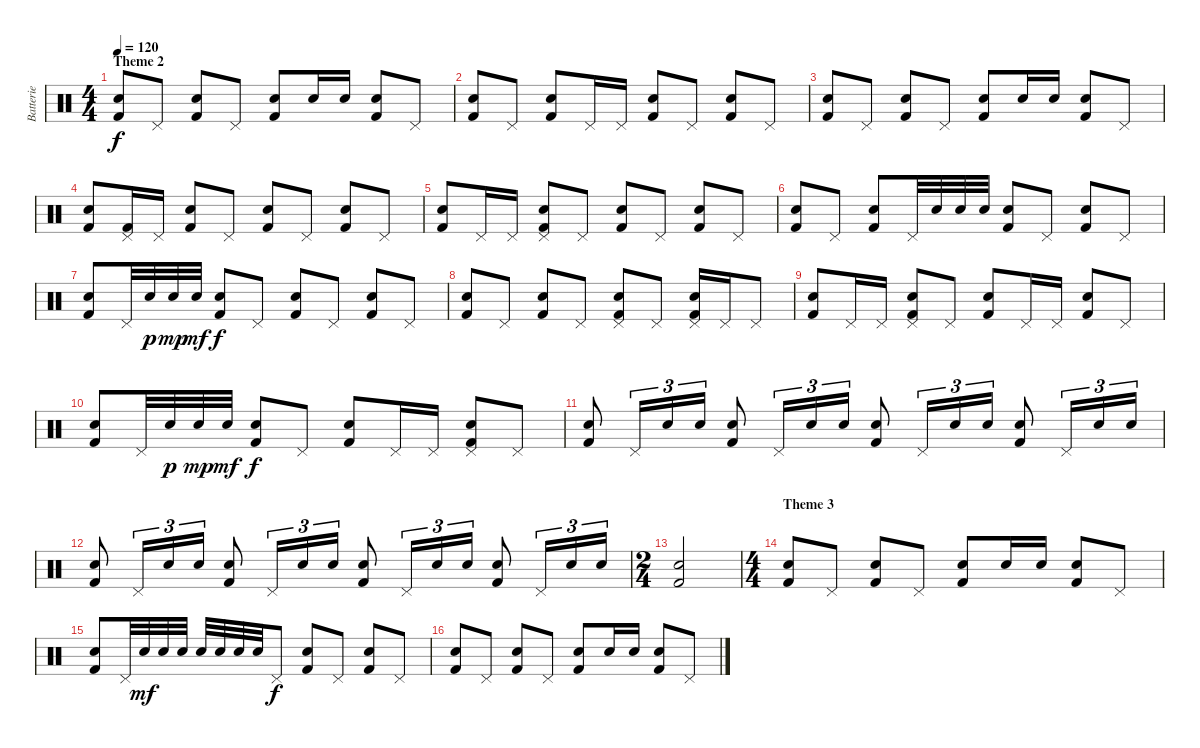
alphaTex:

\track ("Batterie" "Batterie") {instrument percussion}
\staff {score}
\articulation defaults
\ts (4 4)
\section ("" "Theme 2")
\tempo 120
\clef neutral
\ks c
("Electric Snare (hit)" "Kick (hit) 2").8{dy f} "Pedal Hi-Hat (hit)".8 ("Electric Snare (hit)" "Kick (hit) 2").8 "Pedal Hi-Hat (hit)".8 ("Electric Snare (hit)" "Kick (hit) 2").8 "Electric Snare (hit)".16 "Electric Snare (hit)".16 ("Electric Snare (hit)" "Kick (hit) 2").8 "Pedal Hi-Hat (hit)".8 |
("Electric Snare (hit)" "Kick (hit) 2").8 "Pedal Hi-Hat (hit)".8 ("Electric Snare (hit)" "Kick (hit) 2").8 "Pedal Hi-Hat (hit)".16 "Pedal Hi-Hat (hit)".16 ("Electric Snare (hit)" "Kick (hit) 2").8 "Pedal Hi-Hat (hit)".8 ("Electric Snare (hit)" "Kick (hit) 2").8 "Pedal Hi-Hat (hit)".8 |
("Electric Snare (hit)" "Kick (hit) 2").8 "Pedal Hi-Hat (hit)".8 ("Electric Snare (hit)" "Kick (hit) 2").8 "Pedal Hi-Hat (hit)".8 ("Electric Snare (hit)" "Kick (hit) 2").8 "Electric Snare (hit)".16 "Electric Snare (hit)".16 ("Electric Snare (hit)" "Kick (hit) 2").8 "Pedal Hi-Hat (hit)".8 |
("Electric Snare (hit)" "Kick (hit) 2").8 ("Pedal Hi-Hat (hit)" "Kick (hit) 2").16 "Pedal Hi-Hat (hit)".16 ("Electric Snare (hit)" "Kick (hit) 2").8 "Pedal Hi-Hat (hit)".8 ("Electric Snare (hit)" "Kick (hit) 2").8 "Pedal Hi-Hat (hit)".8 ("Electric Snare (hit)" "Kick (hit) 2").8 "Pedal Hi-Hat (hit)".8 |
("Electric Snare (hit)" "Kick (hit) 2").8 "Pedal Hi-Hat (hit)".16 "Pedal Hi-Hat (hit)".16 ("Pedal Hi-Hat (hit)" "Electric Snare (hit)" "Kick (hit) 2").8 "Pedal Hi-Hat (hit)".8 ("Electric Snare (hit)" "Kick (hit) 2").8 "Pedal Hi-Hat (hit)".8 ("Electric Snare (hit)" "Kick (hit) 2").8 "Pedal Hi-Hat (hit)".8 |
("Electric Snare (hit)" "Kick (hit) 2").8 "Pedal Hi-Hat (hit)".8 ("Electric Snare (hit)" "Kick (hit) 2").8 "Pedal Hi-Hat (hit)".32 "Electric Snare (hit)".32 "Electric Snare (hit)".32 "Electric Snare (hit)".32 ("Electric Snare (hit)" "Kick (hit) 2").8 "Pedal Hi-Hat (hit)".8 ("Electric Snare (hit)" "Kick (hit) 2").8 "Pedal Hi-Hat (hit)".8 |
("Electric Snare (hit)" "Kick (hit) 2").8 "Pedal Hi-Hat (hit)".32 "Electric Snare (hit)".32{dy p} "Electric Snare (hit)".32{dy mp} "Electric Snare (hit)".32{dy mf} ("Electric Snare (hit)" "Kick (hit) 2").8{dy f} "Pedal Hi-Hat (hit)".8 ("Electric Snare (hit)" "Kick (hit) 2").8 "Pedal Hi-Hat (hit)".8 ("Electric Snare (hit)" "Kick (hit) 2").8 "Pedal Hi-Hat (hit)".8 |
("Electric Snare (hit)" "Kick (hit) 2").8 "Pedal Hi-Hat (hit)".8 ("Electric Snare (hit)" "Kick (hit) 2").8 "Pedal Hi-Hat (hit)".8 ("Pedal Hi-Hat (hit)" "Electric Snare (hit)" "Kick (hit) 2").8 "Pedal Hi-Hat (hit)".8 ("Pedal Hi-Hat (hit)" "Electric Snare (hit)" "Kick (hit) 2").16 "Pedal Hi-Hat (hit)".16 "Pedal Hi-Hat (hit)".8 |
("Electric Snare (hit)" "Kick (hit) 2").8 "Pedal Hi-Hat (hit)".16 "Pedal Hi-Hat (hit)".16 ("Pedal Hi-Hat (hit)" "Electric Snare (hit)" "Kick (hit) 2").8 "Pedal Hi-Hat (hit)".8 ("Electric Snare (hit)" "Kick (hit) 2").8 "Pedal Hi-Hat (hit)".16 "Pedal Hi-Hat (hit)".16 ("Electric Snare (hit)" "Kick (hit) 2").8 "Pedal Hi-Hat (hit)".8 |
("Electric Snare (hit)" "Kick (hit) 2").8 "Pedal Hi-Hat (hit)".32 "Electric Snare (hit)".32{dy p} "Electric Snare (hit)".32{dy mp} "Electric Snare (hit)".32{dy mf} ("Electric Snare (hit)" "Kick (hit) 2").8{dy f} "Pedal Hi-Hat (hit)".8 ("Electric Snare (hit)" "Kick (hit) 2").8 "Pedal Hi-Hat (hit)".16 "Pedal Hi-Hat (hit)".16 ("Pedal Hi-Hat (hit)" "Electric Snare (hit)" "Kick (hit) 2").8 "Pedal Hi-Hat (hit)".8 |
("Electric Snare (hit)" "Kick (hit) 2").8 "Pedal Hi-Hat (hit)".16{tu (3 2)} "Electric Snare (hit)".16{tu (3 2)} "Electric Snare (hit)".16{tu (3 2)} ("Electric Snare (hit)" "Kick (hit) 2").8 "Pedal Hi-Hat (hit)".16{tu (3 2)} "Electric Snare (hit)".16{tu (3 2)} "Electric Snare (hit)".16{tu (3 2)} ("Electric Snare (hit)" "Kick (hit) 2").8 "Pedal Hi-Hat (hit)".16{tu (3 2)} "Electric Snare (hit)".16{tu (3 2)} "Electric Snare (hit)".16{tu (3 2)} ("Electric Snare (hit)" "Kick (hit) 2").8 "Pedal Hi-Hat (hit)".16{tu (3 2)} "Electric Snare (hit)".16{tu (3 2)} "Electric Snare (hit)".16{tu (3 2)} |
("Electric Snare (hit)" "Kick (hit) 2").8 "Pedal Hi-Hat (hit)".16{tu (3 2)} "Electric Snare (hit)".16{tu (3 2)} "Electric Snare (hit)".16{tu (3 2)} ("Electric Snare (hit)" "Kick (hit) 2").8 "Pedal Hi-Hat (hit)".16{tu (3 2)} "Electric Snare (hit)".16{tu (3 2)} "Electric Snare (hit)".16{tu (3 2)} ("Electric Snare (hit)" "Kick (hit) 2").8 "Pedal Hi-Hat (hit)".16{tu (3 2)} "Electric Snare (hit)".16{tu (3 2)} "Electric Snare (hit)".16{tu (3 2)} ("Electric Snare (hit)" "Kick (hit) 2").8 "Pedal Hi-Hat (hit)".16{tu (3 2)} "Electric Snare (hit)".16{tu (3 2)} "Electric Snare (hit)".16{tu (3 2)} |
\ts (2 4)
("Electric Snare (hit)" "Kick (hit) 2").2 |
\ts (4 4)
\section ("" "Theme 3")
("Electric Snare (hit)" "Kick (hit) 2").8 "Pedal Hi-Hat (hit)".8 ("Electric Snare (hit)" "Kick (hit) 2").8 "Pedal Hi-Hat (hit)".8 ("Electric Snare (hit)" "Kick (hit) 2").8 "Electric Snare (hit)".16 "Electric Snare (hit)".16 ("Electric Snare (hit)" "Kick (hit) 2").8 "Pedal Hi-Hat (hit)".8 |
("Electric Snare (hit)" "Kick (hit) 2").8 "Pedal Hi-Hat (hit)".32 "Electric Snare (hit)".32{dy mf} "Electric Snare (hit)".32 "Electric Snare (hit)".32 "Electric Snare (hit)".32 "Electric Snare (hit)".32 "Electric Snare (hit)".32 "Electric Snare (hit)".32 "Pedal Hi-Hat (hit)".8{dy f} ("Electric Snare (hit)" "Kick (hit) 2").8 "Pedal Hi-Hat (hit)".8 ("Electric Snare (hit)" "Kick (hit) 2").8 "Pedal Hi-Hat (hit)".8 |
("Electric Snare (hit)" "Kick (hit) 2").8 "Pedal Hi-Hat (hit)".8 ("Electric Snare (hit)" "Kick (hit) 2").8 "Pedal Hi-Hat (hit)".8 ("Electric Snare (hit)" "Kick (hit) 2").8 "Electric Snare (hit)".16 "Electric Snare (hit)".16 ("Electric Snare (hit)" "Kick (hit) 2").8 "Pedal Hi-Hat (hit)".8
